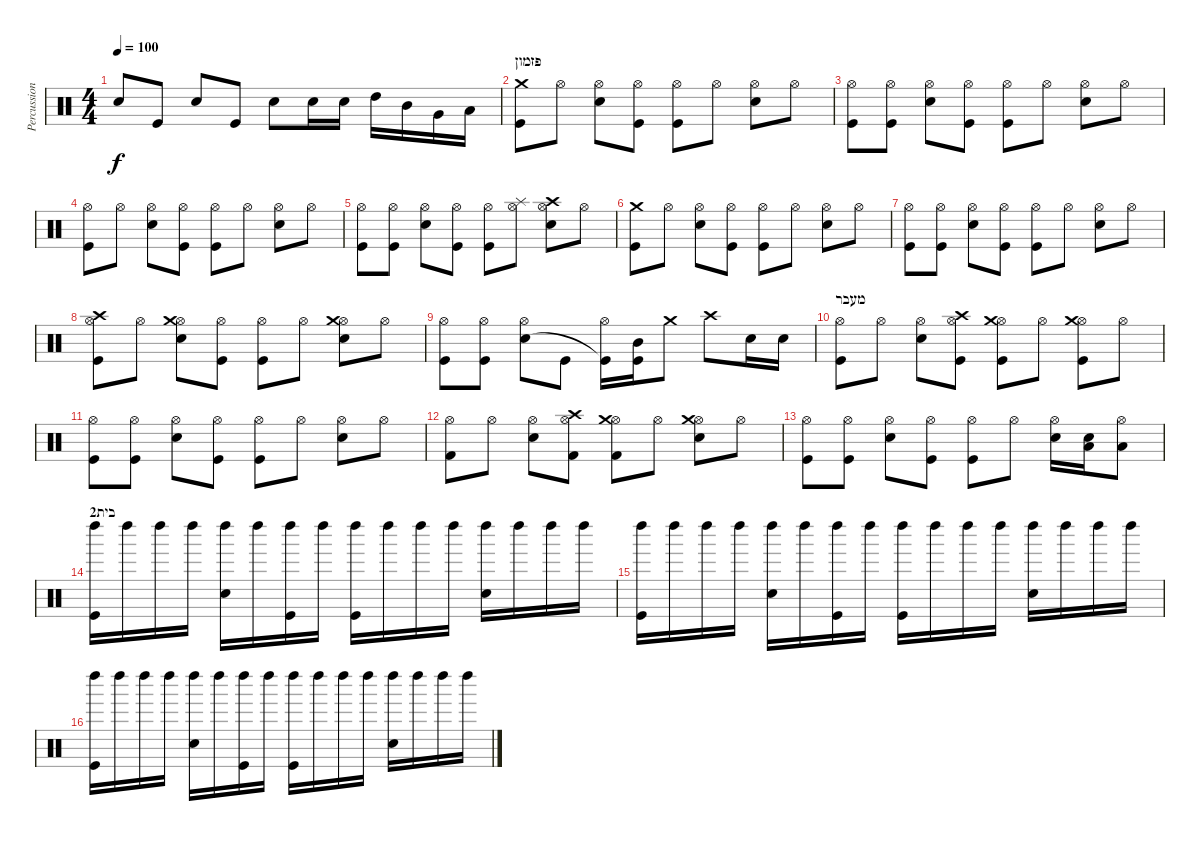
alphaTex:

\track ("Percussion" "Percussion") {instrument percussion}
\staff {score}
\articulation defaults
\ts (4 4)
\tempo 100
\clef neutral
\ks c "Snare (hit) 2".8{dy f} "Kick (hit)".8 "Snare (hit) 2".8 "Kick (hit)".8 "Snare (hit) 2".8 "Snare (hit) 2".16 "Snare (hit) 2".16 "High Tom (hit)".16 "Mid Tom (hit)".16 "Very Low Tom (hit)".16 "Low Tom (hit)".16
|
\section ("" "פזמון")
("Kick (hit)" "Crash medium (hit)").8 "Hi-Hat (open)".8 ("Hi-Hat (open)" "Snare (hit) 2").8 ("Hi-Hat (open)" "Kick (hit)").8 ("Hi-Hat (open)" "Kick (hit)").8 "Hi-Hat (open)".8 ("Hi-Hat (open)" "Snare (hit) 2").8 "Hi-Hat (open)".8 |
("Hi-Hat (open)" "Kick (hit)").8 ("Hi-Hat (open)" "Kick (hit)").8 ("Hi-Hat (open)" "Snare (hit) 2").8 ("Hi-Hat (open)" "Kick (hit)").8 ("Hi-Hat (open)" "Kick (hit)").8 "Hi-Hat (open)".8 ("Hi-Hat (open)" "Snare (hit) 2").8 "Hi-Hat (open)".8 |
("Hi-Hat (open)" "Kick (hit)").8 "Hi-Hat (open)".8 ("Hi-Hat (open)" "Snare (hit) 2").8 ("Hi-Hat (open)" "Kick (hit)").8 ("Hi-Hat (open)" "Kick (hit)").8 "Hi-Hat (open)".8 ("Hi-Hat (open)" "Snare (hit) 2").8 "Hi-Hat (open)".8 |
("Hi-Hat (open)" "Kick (hit)").8 ("Hi-Hat (open)" "Kick (hit)").8 ("Hi-Hat (open)" "Snare (hit) 2").8 ("Hi-Hat (open)" "Kick (hit)").8 ("Hi-Hat (open)" "Kick (hit)").8 ("Hi-Hat (open)" "Splash (hit)").8 ("Hi-Hat (open)" "Snare (hit) 2" "Crash high (hit)").8 "Hi-Hat (open)".8 |
("Kick (hit)" "Crash medium (hit)").8 "Hi-Hat (open)".8 ("Hi-Hat (open)" "Snare (hit) 2").8 ("Hi-Hat (open)" "Kick (hit)").8 ("Hi-Hat (open)" "Kick (hit)").8 "Hi-Hat (open)".8 ("Hi-Hat (open)" "Snare (hit) 2").8 "Hi-Hat (open)".8 |
("Hi-Hat (open)" "Kick (hit)").8 ("Hi-Hat (open)" "Kick (hit)").8 ("Hi-Hat (open)" "Snare (hit) 2").8 ("Hi-Hat (open)" "Kick (hit)").8 ("Hi-Hat (open)" "Kick (hit)").8 "Hi-Hat (open)".8 ("Hi-Hat (open)" "Snare (hit) 2").8 "Hi-Hat (open)".8 |
("Hi-Hat (open)" "Kick (hit)" "Crash high (hit)").8 "Hi-Hat (open)".8 ("Hi-Hat (open)" "Snare (hit) 2" "Crash medium (hit)").8 ("Hi-Hat (open)" "Kick (hit)").8 ("Hi-Hat (open)" "Kick (hit)").8 "Hi-Hat (open)".8 ("Hi-Hat (open)" "Snare (hit) 2" "Crash medium (hit)").8 "Hi-Hat (open)".8 |
("Hi-Hat (open)" "Kick (hit)").8 ("Hi-Hat (open)" "Kick (hit)").8 ("Hi-Hat (open)" "Snare (hit) 2").8 "Kick (hit)".8 ("Hi-Hat (open)" "Kick (hit)"{t}).16 ("Kick (hit)" "Mid Tom (hit)").16 "Crash medium (hit)".8 "Crash high (hit)".8 "Snare (hit) 2".16 "Snare (hit) 2".16 |
\section ("" "מעבר")
("Hi-Hat (open)" "Kick (hit)").8 "Hi-Hat (open)".8 ("Hi-Hat (open)" "Snare (hit) 2").8 ("Hi-Hat (open)" "Kick (hit)" "Crash high (hit)").8 ("Hi-Hat (open)" "Kick (hit)" "Crash medium (hit)").8 "Hi-Hat (open)".8 ("Hi-Hat (open)" "Kick (hit)" "Crash medium (hit)").8 "Hi-Hat (open)".8 |
("Hi-Hat (open)" "Kick (hit)").8 ("Hi-Hat (open)" "Kick (hit)").8 ("Hi-Hat (open)" "Snare (hit) 2").8 ("Hi-Hat (open)" "Kick (hit)").8 ("Hi-Hat (open)" "Kick (hit)").8 "Hi-Hat (open)".8 ("Hi-Hat (open)" "Snare (hit) 2").8 "Hi-Hat (open)".8 |
("Hi-Hat (open)" "Kick (hit) 2").8 "Hi-Hat (open)".8 ("Hi-Hat (open)" "Snare (hit) 2").8 ("Hi-Hat (open)" "Kick (hit) 2" "Crash high (hit)").8 ("Hi-Hat (open)" "Kick (hit) 2" "Crash medium (hit)").8 "Hi-Hat (open)".8 ("Hi-Hat (open)" "Snare (hit) 2" "Crash medium (hit)").8 "Hi-Hat (open)".8 |
("Hi-Hat (open)" "Kick (hit)").8 ("Hi-Hat (open)" "Kick (hit)").8 ("Hi-Hat (open)" "Snare (hit) 2").8 ("Hi-Hat (open)" "Kick (hit)").8 ("Hi-Hat (open)" "Kick (hit)").8 "Hi-Hat (open)".8 ("Hi-Hat (open)" "Snare (hit) 2").16 ("Snare (hit) 2" "Low Tom (hit)").16 ("Hi-Hat (open)" "Low Tom (hit)").8 |
\section ("" "בית2")
("Kick (hit)" "Left Maraca (hit)").16 "Left Maraca (hit)".16 "Left Maraca (hit)".16 "Left Maraca (hit)".16 ("Snare (hit) 2" "Left Maraca (hit)").16 "Left Maraca (hit)".16 ("Kick (hit)" "Left Maraca (hit)").16 "Left Maraca (hit)".16 ("Kick (hit)" "Left Maraca (hit)").16 "Left Maraca (hit)".16 "Left Maraca (hit)".16 "Left Maraca (hit)".16 ("Snare (hit) 2" "Left Maraca (hit)").16 "Left Maraca (hit)".16 "Left Maraca (hit)".16 "Left Maraca (hit)".16 |
("Kick (hit)" "Left Maraca (hit)").16 "Left Maraca (hit)".16 "Left Maraca (hit)".16 "Left Maraca (hit)".16 ("Snare (hit) 2" "Left Maraca (hit)").16 "Left Maraca (hit)".16 ("Kick (hit)" "Left Maraca (hit)").16 "Left Maraca (hit)".16 ("Kick (hit)" "Left Maraca (hit)").16 "Left Maraca (hit)".16 "Left Maraca (hit)".16 "Left Maraca (hit)".16 ("Snare (hit) 2" "Left Maraca (hit)").16 "Left Maraca (hit)".16 "Left Maraca (hit)".16 "Left Maraca (hit)".16 |
("Kick (hit)" "Left Maraca (hit)").16 "Left Maraca (hit)".16 "Left Maraca (hit)".16 "Left Maraca (hit)".16 ("Snare (hit) 2" "Left Maraca (hit)").16 "Left Maraca (hit)".16 ("Kick (hit)" "Left Maraca (hit)").16 "Left Maraca (hit)".16 ("Kick (hit)" "Left Maraca (hit)").16 "Left Maraca (hit)".16 "Left Maraca (hit)".16 "Left Maraca (hit)".16 ("Snare (hit) 2" "Left Maraca (hit)").16 "Left Maraca (hit)".16 "Left Maraca (hit)".16 "Left Maraca (hit)".16
